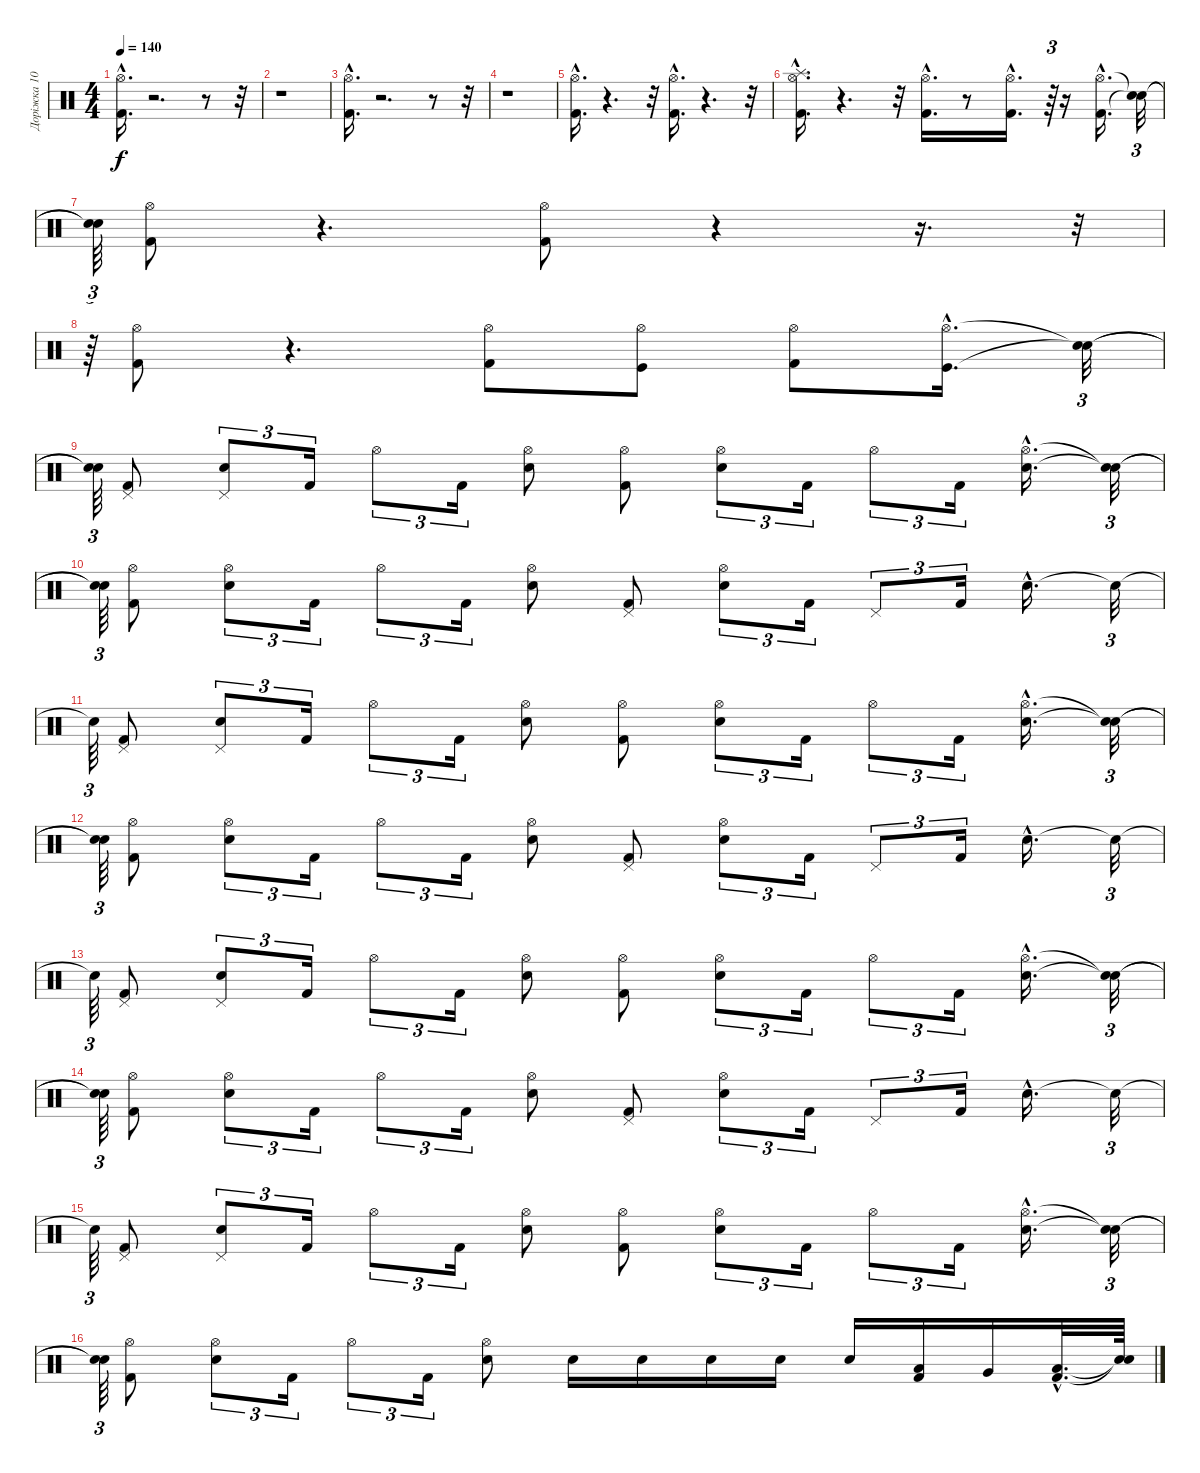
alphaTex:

\track ("Доріжка 10" "Доріжка 10") {instrument percussion}
\staff {score}
\articulation defaults
\ts (4 4)
\tempo 140
\clef neutral
\ks c
("Hi-Hat (open)"{hac} "Kick (hit) 2"{hac}).16{d dy f} r.2{d} r.8 r.32 |
r.1 |
("Hi-Hat (open)"{hac} "Kick (hit) 2"{hac}).16{d} r.2{d} r.8 r.32 |
r.1 |
("Hi-Hat (open)"{hac} "Kick (hit) 2"{hac}).16{d} r.4{d} r.32 ("Hi-Hat (open)"{hac} "Kick (hit) 2"{hac}).16{d} r.4{d} r.32 |
("Splash (hit)"{hac} "Hi-Hat (open)"{hac} "Kick (hit) 2"{hac}).16{d} r.4{d} r.32 ("Hi-Hat (open)"{hac} "Kick (hit) 2"{hac}).16{d} r.8 ("Hi-Hat (open)"{hac} "Kick (hit) 2"{hac}).16{d} r.64{tu (3 2)} r.16 ("Hi-Hat (open)"{hac} "Kick (hit) 2"{hac}).16{d} ("Snare (hit)"{t} "Snare (hit)"{t}).32{tu (3 2)} |
("Snare (hit)"{t} "Snare (hit)"{t}).64{tu (3 2)} ("Hi-Hat (open)" "Kick (hit) 2").8 r.4{d} ("Hi-Hat (open)" "Kick (hit) 2").8 r.4 r.16{d} r.32{tu (3 2)} |
r.64{tu (3 2)} ("Hi-Hat (open)" "Kick (hit) 2").8 r.4{d} ("Kick (hit) 2" "Hi-Hat (open)").8 ("Kick (hit)" "Hi-Hat (open)").8 ("Kick (hit) 2" "Hi-Hat (open)").8 ("Kick (hit)"{hac} "Hi-Hat (open)"{hac}).16{d} ("Snare (hit)"{t} "Snare (hit)"{t}).32{tu (3 2)} |
("Snare (hit)"{t} "Snare (hit)"{t}).64{tu (3 2)} ("Pedal Hi-Hat (hit)" "Kick (hit) 2").8 ("Pedal Hi-Hat (hit)" "Electric Snare (hit)").8{tu (3 2)} "Kick (hit) 2".16{tu (3 2)} "Hi-Hat (open)".8{tu (3 2)} "Kick (hit) 2".16{tu (3 2)} ("Hi-Hat (open)" "Electric Snare (hit)").8 ("Hi-Hat (open)" "Kick (hit) 2").8 ("Hi-Hat (open)" "Electric Snare (hit)").8{tu (3 2)} "Kick (hit) 2".16{tu (3 2)} "Hi-Hat (open)".8{tu (3 2)} "Kick (hit) 2".16{tu (3 2)} ("Hi-Hat (open)"{hac} "Electric Snare (hit)"{hac}).16{d} ("Snare (hit)"{t} "Snare (hit)"{t}).32{tu (3 2)} |
("Snare (hit)"{t} "Snare (hit)"{t}).64{tu (3 2)} ("Hi-Hat (open)" "Kick (hit) 2").8 ("Hi-Hat (open)" "Electric Snare (hit)").8{tu (3 2)} "Kick (hit) 2".16{tu (3 2)} "Hi-Hat (open)".8{tu (3 2)} "Kick (hit) 2".16{tu (3 2)} ("Electric Snare (hit)" "Hi-Hat (open)").8 ("Pedal Hi-Hat (hit)" "Kick (hit) 2").8 ("Hi-Hat (open)" "Electric Snare (hit)").8{tu (3 2)} "Kick (hit) 2".16{tu (3 2)} "Pedal Hi-Hat (hit)".8{tu (3 2)} "Kick (hit) 2".16{tu (3 2)} "Electric Snare (hit)"{hac}.16{d} "Snare (hit)"{t}.32{tu (3 2)} |
"Snare (hit)"{t}.64{tu (3 2)} ("Pedal Hi-Hat (hit)" "Kick (hit) 2").8 ("Pedal Hi-Hat (hit)" "Electric Snare (hit)").8{tu (3 2)} "Kick (hit) 2".16{tu (3 2)} "Hi-Hat (open)".8{tu (3 2)} "Kick (hit) 2".16{tu (3 2)} ("Hi-Hat (open)" "Electric Snare (hit)").8 ("Hi-Hat (open)" "Kick (hit) 2").8 ("Hi-Hat (open)" "Electric Snare (hit)").8{tu (3 2)} "Kick (hit) 2".16{tu (3 2)} "Hi-Hat (open)".8{tu (3 2)} "Kick (hit) 2".16{tu (3 2)} ("Hi-Hat (open)"{hac} "Electric Snare (hit)"{hac}).16{d} ("Snare (hit)"{t} "Snare (hit)"{t}).32{tu (3 2)} |
("Snare (hit)"{t} "Snare (hit)"{t}).64{tu (3 2)} ("Hi-Hat (open)" "Kick (hit) 2").8 ("Hi-Hat (open)" "Electric Snare (hit)").8{tu (3 2)} "Kick (hit) 2".16{tu (3 2)} "Hi-Hat (open)".8{tu (3 2)} "Kick (hit) 2".16{tu (3 2)} ("Hi-Hat (open)" "Electric Snare (hit)").8 ("Pedal Hi-Hat (hit)" "Kick (hit) 2").8 ("Hi-Hat (open)" "Electric Snare (hit)").8{tu (3 2)} "Kick (hit) 2".16{tu (3 2)} "Pedal Hi-Hat (hit)".8{tu (3 2)} "Kick (hit) 2".16{tu (3 2)} "Electric Snare (hit)"{hac}.16{d} "Snare (hit)"{t}.32{tu (3 2)} |
"Snare (hit)"{t}.64{tu (3 2)} ("Pedal Hi-Hat (hit)" "Kick (hit) 2").8 ("Pedal Hi-Hat (hit)" "Electric Snare (hit)").8{tu (3 2)} "Kick (hit) 2".16{tu (3 2)} "Hi-Hat (open)".8{tu (3 2)} "Kick (hit) 2".16{tu (3 2)} ("Hi-Hat (open)" "Electric Snare (hit)").8 ("Hi-Hat (open)" "Kick (hit) 2").8 ("Hi-Hat (open)" "Electric Snare (hit)").8{tu (3 2)} "Kick (hit) 2".16{tu (3 2)} "Hi-Hat (open)".8{tu (3 2)} "Kick (hit) 2".16{tu (3 2)} ("Hi-Hat (open)"{hac} "Electric Snare (hit)"{hac}).16{d} ("Snare (hit)"{t} "Snare (hit)"{t}).32{tu (3 2)} |
("Snare (hit)"{t} "Snare (hit)"{t}).64{tu (3 2)} ("Hi-Hat (open)" "Kick (hit) 2").8 ("Hi-Hat (open)" "Electric Snare (hit)").8{tu (3 2)} "Kick (hit) 2".16{tu (3 2)} "Hi-Hat (open)".8{tu (3 2)} "Kick (hit) 2".16{tu (3 2)} ("Hi-Hat (open)" "Electric Snare (hit)").8 ("Pedal Hi-Hat (hit)" "Kick (hit) 2").8 ("Hi-Hat (open)" "Electric Snare (hit)").8{tu (3 2)} "Kick (hit) 2".16{tu (3 2)} "Pedal Hi-Hat (hit)".8{tu (3 2)} "Kick (hit) 2".16{tu (3 2)} "Electric Snare (hit)"{hac}.16{d} "Snare (hit)"{t}.32{tu (3 2)} |
"Snare (hit)"{t}.64{tu (3 2)} ("Pedal Hi-Hat (hit)" "Kick (hit) 2").8 ("Pedal Hi-Hat (hit)" "Electric Snare (hit)").8{tu (3 2)} "Kick (hit) 2".16{tu (3 2)} "Hi-Hat (open)".8{tu (3 2)} "Kick (hit) 2".16{tu (3 2)} ("Hi-Hat (open)" "Electric Snare (hit)").8 ("Hi-Hat (open)" "Kick (hit) 2").8 ("Hi-Hat (open)" "Electric Snare (hit)").8{tu (3 2)} "Kick (hit) 2".16{tu (3 2)} "Hi-Hat (open)".8{tu (3 2)} "Kick (hit) 2".16{tu (3 2)} ("Hi-Hat (open)"{hac} "Electric Snare (hit)"{hac}).16{d} ("Snare (hit)"{t} "Snare (hit)"{t}).32{tu (3 2)} |
("Snare (hit)"{t} "Snare (hit)"{t}).64{tu (3 2)} ("Hi-Hat (open)" "Kick (hit) 2").8 ("Hi-Hat (open)" "Electric Snare (hit)").8{tu (3 2)} "Kick (hit) 2".16{tu (3 2)} "Hi-Hat (open)".8{tu (3 2)} "Kick (hit) 2".16{tu (3 2)} ("Hi-Hat (open)" "Electric Snare (hit)").8 "Electric Snare (hit)".16 "Electric Snare (hit)".16 "Electric Snare (hit)".16 "Electric Snare (hit)".16 "Electric Snare (hit)".16 ("Kick (hit) 2" "Low Tom (hit)").16 "Very Low Tom (hit)".16 ("Kick (hit) 2"{hac} "Low Floor Tom (hit)"{hac}).32{d} ("Snare (hit)"{t} "Snare (hit)"{t}).64
